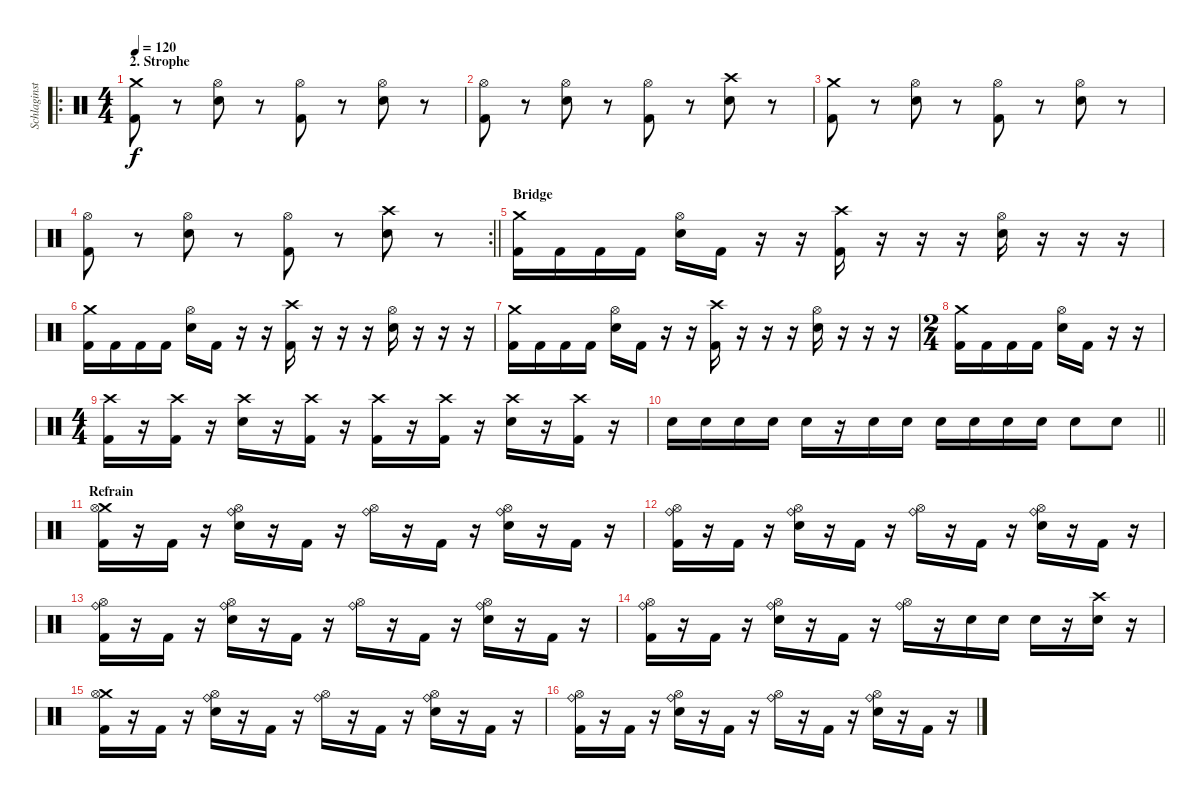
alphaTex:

\track ("Schlaginstrumente - Auswahl" "Schlaginst") {instrument percussion}
\staff {score}
\articulation defaults
\ro
\ts (4 4)
\section ("" "2. Strophe")
\tempo 120
\clef neutral
\ks c
("Crash medium (hit)" "Kick (hit) 2").8{dy f} r.8 ("Hi-Hat (open)" "Electric Snare (hit)").8 r.8 ("Hi-Hat (open)" "Kick (hit) 2").8 r.8 ("Hi-Hat (open)" "Electric Snare (hit)").8 r.8 |
("Hi-Hat (open)" "Kick (hit) 2").8 r.8 ("Hi-Hat (open)" "Electric Snare (hit)").8 r.8 ("Hi-Hat (open)" "Kick (hit) 2").8 r.8 ("Crash high (hit)" "Electric Snare (hit)").8 r.8 |
("Crash medium (hit)" "Kick (hit) 2").8 r.8 ("Hi-Hat (open)" "Electric Snare (hit)").8 r.8 ("Hi-Hat (open)" "Kick (hit) 2").8 r.8 ("Hi-Hat (open)" "Electric Snare (hit)").8 r.8 |
\rc 2
\barLineRight lightlight
("Hi-Hat (open)" "Kick (hit) 2").8 r.8 ("Hi-Hat (open)" "Electric Snare (hit)").8 r.8 ("Hi-Hat (open)" "Kick (hit) 2").8 r.8 ("Crash high (hit)" "Electric Snare (hit)").8 r.8 |
\section ("" "Bridge")
("Crash medium (hit)" "Kick (hit) 2").16 "Kick (hit) 2".16 "Kick (hit) 2".16 "Kick (hit) 2".16 ("Hi-Hat (open)" "Electric Snare (hit)").16 "Kick (hit) 2".16 r.16 r.16 ("Crash high (hit)" "Kick (hit) 2").16 r.16 r.16 r.16 ("Hi-Hat (open)" "Electric Snare (hit)").16 r.16 r.16 r.16 |
("Crash medium (hit)" "Kick (hit) 2").16 "Kick (hit) 2".16 "Kick (hit) 2".16 "Kick (hit) 2".16 ("Hi-Hat (open)" "Electric Snare (hit)").16 "Kick (hit) 2".16 r.16 r.16 ("Crash high (hit)" "Kick (hit) 2").16 r.16 r.16 r.16 ("Hi-Hat (open)" "Electric Snare (hit)").16 r.16 r.16 r.16 |
("Crash medium (hit)" "Kick (hit) 2").16 "Kick (hit) 2".16 "Kick (hit) 2".16 "Kick (hit) 2".16 ("Hi-Hat (open)" "Electric Snare (hit)").16 "Kick (hit) 2".16 r.16 r.16 ("Crash high (hit)" "Kick (hit) 2").16 r.16 r.16 r.16 ("Hi-Hat (open)" "Electric Snare (hit)").16 r.16 r.16 r.16 |
\ts (2 4)
("Crash medium (hit)" "Kick (hit) 2").16 "Kick (hit) 2".16 "Kick (hit) 2".16 "Kick (hit) 2".16 ("Hi-Hat (open)" "Electric Snare (hit)").16 "Kick (hit) 2".16 r.16 r.16 |
\ts (4 4)
("Crash high (hit)" "Kick (hit) 2").16 r.16 ("Crash high (hit)" "Kick (hit) 2").16 r.16 ("Crash high (hit)" "Electric Snare (hit)").16 r.16 ("Crash high (hit)" "Kick (hit) 2").16 r.16 ("Crash high (hit)" "Kick (hit) 2").16 r.16 ("Crash high (hit)" "Kick (hit) 2").16 r.16 ("Crash high (hit)" "Electric Snare (hit)").16 r.16 ("Crash high (hit)" "Kick (hit) 2").16 r.16 |
\barLineRight lightlight "Electric Snare (hit)".16 "Electric Snare (hit)".16 "Electric Snare (hit)".16 "Electric Snare (hit)".16 "Electric Snare (hit)".16
r.16 "Electric Snare (hit)".16 "Electric Snare (hit)".16 "Electric Snare (hit)".16 "Electric Snare (hit)".16 "Electric Snare (hit)".16 "Electric Snare (hit)".16 "Electric Snare (hit)".8 "Electric Snare (hit)".8 |
\section ("" "Refrain")
("Crash medium (hit)" "Hi-Hat (open)" "Kick (hit) 2").16 r.16 "Kick (hit) 2".16 r.16 ("Hi-Hat (open)" "Ride (bell)" "Electric Snare (hit)").16 r.16 "Kick (hit) 2".16 r.16 ("Hi-Hat (open)" "Ride (bell)").16 r.16 "Kick (hit) 2".16 r.16 ("Hi-Hat (open)" "Ride (bell)" "Electric Snare (hit)").16 r.16 "Kick (hit) 2".16 r.16 |
("Hi-Hat (open)" "Ride (bell)" "Kick (hit) 2").16 r.16 "Kick (hit) 2".16 r.16 ("Hi-Hat (open)" "Ride (bell)" "Electric Snare (hit)").16 r.16 "Kick (hit) 2".16 r.16 ("Hi-Hat (open)" "Ride (bell)").16 r.16 "Kick (hit) 2".16 r.16 ("Hi-Hat (open)" "Ride (bell)" "Electric Snare (hit)").16 r.16 "Kick (hit) 2".16 r.16 |
("Hi-Hat (open)" "Ride (bell)" "Kick (hit) 2").16 r.16 "Kick (hit) 2".16 r.16 ("Hi-Hat (open)" "Ride (bell)" "Electric Snare (hit)").16 r.16 "Kick (hit) 2".16 r.16 ("Hi-Hat (open)" "Ride (bell)").16 r.16 "Kick (hit) 2".16 r.16 ("Hi-Hat (open)" "Ride (bell)" "Electric Snare (hit)").16 r.16 "Kick (hit) 2".16 r.16 |
("Hi-Hat (open)" "Ride (bell)" "Kick (hit) 2").16 r.16 "Kick (hit) 2".16 r.16 ("Hi-Hat (open)" "Ride (bell)" "Electric Snare (hit)").16 r.16 "Kick (hit) 2".16 r.16 ("Hi-Hat (open)" "Ride (bell)").16 r.16 "Electric Snare (hit)".16 "Electric Snare (hit)".16 "Electric Snare (hit)".16 r.16 ("Crash high (hit)" "Electric Snare (hit)").16 r.16 |
("Crash medium (hit)" "Hi-Hat (open)" "Kick (hit) 2").16 r.16 "Kick (hit) 2".16 r.16 ("Hi-Hat (open)" "Ride (bell)" "Electric Snare (hit)").16 r.16 "Kick (hit) 2".16 r.16 ("Hi-Hat (open)" "Ride (bell)").16 r.16 "Kick (hit) 2".16 r.16 ("Hi-Hat (open)" "Ride (bell)" "Electric Snare (hit)").16 r.16 "Kick (hit) 2".16 r.16 |
("Hi-Hat (open)" "Ride (bell)" "Kick (hit) 2").16 r.16 "Kick (hit) 2".16 r.16 ("Hi-Hat (open)" "Ride (bell)" "Electric Snare (hit)").16 r.16 "Kick (hit) 2".16 r.16 ("Hi-Hat (open)" "Ride (bell)").16 r.16 "Kick (hit) 2".16 r.16 ("Hi-Hat (open)" "Ride (bell)" "Electric Snare (hit)").16 r.16 "Kick (hit) 2".16 r.16
